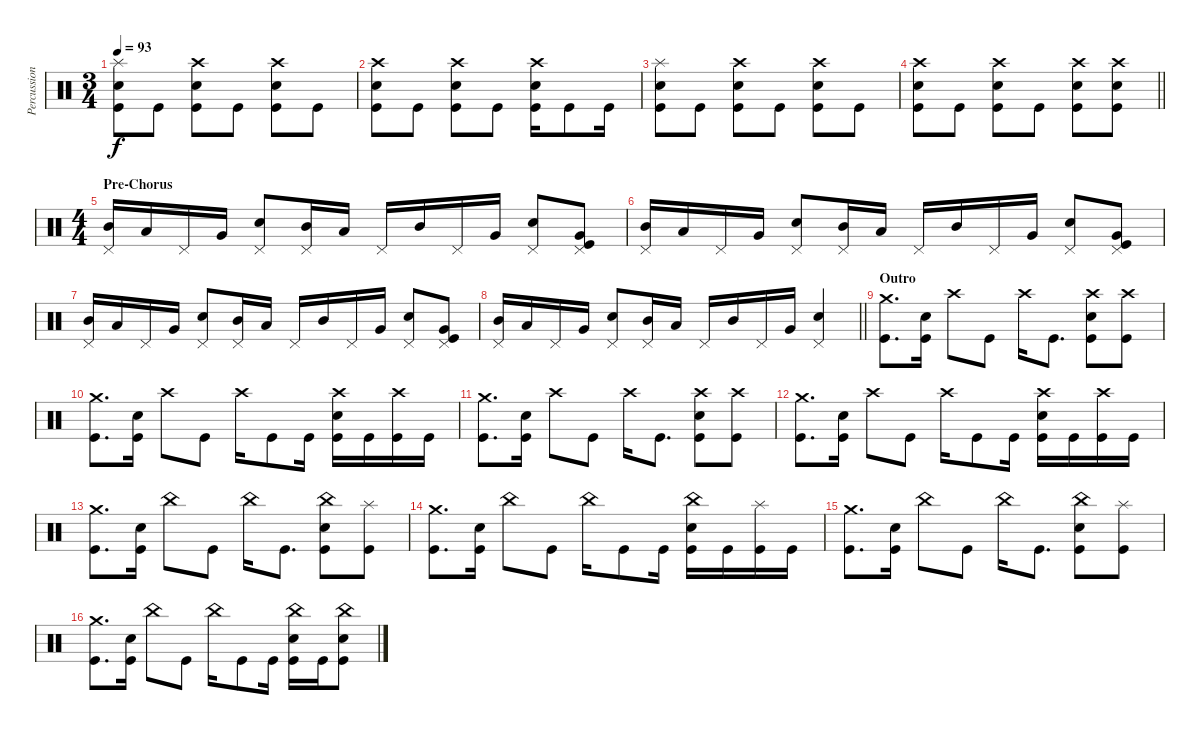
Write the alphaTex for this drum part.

\track ("Percussion" "Percussion") {instrument percussion}
\staff {score}
\articulation defaults
\ts (3 4)
\tempo 93
\clef neutral
\ks c
("Splash (hit)" "Electric Snare (hit)" "Kick (hit)").8{dy f} "Kick (hit)".8 ("Crash high (hit)" "Electric Snare (hit)" "Kick (hit)").8 "Kick (hit)".8 ("Crash high (hit)" "Electric Snare (hit)" "Kick (hit)").8 "Kick (hit)".8 |
("Crash high (hit)" "Electric Snare (hit)" "Kick (hit)").8 "Kick (hit)".8 ("Crash high (hit)" "Electric Snare (hit)" "Kick (hit)").8 "Kick (hit)".8 ("Crash high (hit)" "Electric Snare (hit)" "Kick (hit)").16 "Kick (hit)".8 "Kick (hit)".16 |
("Splash (hit)" "Electric Snare (hit)" "Kick (hit)").8 "Kick (hit)".8 ("Crash high (hit)" "Electric Snare (hit)" "Kick (hit)").8 "Kick (hit)".8 ("Crash high (hit)" "Electric Snare (hit)" "Kick (hit)").8 "Kick (hit)".8 |
\barLineRight lightlight
("Crash high (hit)" "Electric Snare (hit)" "Kick (hit)").8 "Kick (hit)".8 ("Crash high (hit)" "Electric Snare (hit)" "Kick (hit)").8 "Kick (hit)".8 ("Crash high (hit)" "Electric Snare (hit)" "Kick (hit)").8 ("Crash high (hit)" "Electric Snare (hit)" "Kick (hit)").8 |
\ts (4 4)
\section ("" "Pre-Chorus")
("Pedal Hi-Hat (hit)" "Mid Tom (hit)").16 "Low Tom (hit)".16 "Pedal Hi-Hat (hit)".16 "Very Low Tom (hit)".16 ("Pedal Hi-Hat (hit)" "Electric Snare (hit)").8 ("Pedal Hi-Hat (hit)" "Mid Tom (hit)").16 "Low Tom (hit)".16 "Pedal Hi-Hat (hit)".16 "Mid Tom (hit)".16 "Pedal Hi-Hat (hit)".16 "Very Low Tom (hit)".16 ("Pedal Hi-Hat (hit)" "Electric Snare (hit)").8 ("Pedal Hi-Hat (hit)" "Very Low Tom (hit)" "Kick (hit)").8 |
("Pedal Hi-Hat (hit)" "Mid Tom (hit)").16 "Low Tom (hit)".16 "Pedal Hi-Hat (hit)".16 "Very Low Tom (hit)".16 ("Pedal Hi-Hat (hit)" "Electric Snare (hit)").8 ("Pedal Hi-Hat (hit)" "Mid Tom (hit)").16 "Low Tom (hit)".16 "Pedal Hi-Hat (hit)".16 "Mid Tom (hit)".16 "Pedal Hi-Hat (hit)".16 "Very Low Tom (hit)".16 ("Pedal Hi-Hat (hit)" "Electric Snare (hit)").8 ("Pedal Hi-Hat (hit)" "Very Low Tom (hit)" "Kick (hit)").8 |
("Pedal Hi-Hat (hit)" "Mid Tom (hit)").16 "Low Tom (hit)".16 "Pedal Hi-Hat (hit)".16 "Very Low Tom (hit)".16 ("Pedal Hi-Hat (hit)" "Electric Snare (hit)").8 ("Pedal Hi-Hat (hit)" "Mid Tom (hit)").16 "Low Tom (hit)".16 "Pedal Hi-Hat (hit)".16 "Mid Tom (hit)".16 "Pedal Hi-Hat (hit)".16 "Very Low Tom (hit)".16 ("Pedal Hi-Hat (hit)" "Electric Snare (hit)").8 ("Pedal Hi-Hat (hit)" "Very Low Tom (hit)" "Kick (hit)").8 |
\barLineRight lightlight
("Pedal Hi-Hat (hit)" "Mid Tom (hit)").16 "Low Tom (hit)".16 "Pedal Hi-Hat (hit)".16 "Very Low Tom (hit)".16 ("Pedal Hi-Hat (hit)" "Electric Snare (hit)").8 ("Pedal Hi-Hat (hit)" "Mid Tom (hit)").16 "Low Tom (hit)".16 "Pedal Hi-Hat (hit)".16 "Mid Tom (hit)".16 "Pedal Hi-Hat (hit)".16 "Very Low Tom (hit)".16 ("Pedal Hi-Hat (hit)" "Electric Snare (hit)").4 |
\section ("" "Outro")
("Crash medium (hit)" "Kick (hit)").8{d} ("Electric Snare (hit)" "Kick (hit)").16 "Crash high (hit)".8 "Kick (hit)".8 "Crash high (hit)".16 "Kick (hit)".8{d} ("Crash high (hit)" "Electric Snare (hit)" "Kick (hit)").8 ("Crash high (hit)" "Kick (hit)").8 |
("Crash medium (hit)" "Kick (hit)").8{d} ("Electric Snare (hit)" "Kick (hit)").16 "Crash high (hit)".8 "Kick (hit)".8 "Crash high (hit)".16 "Kick (hit)".8 "Kick (hit)".16 ("Crash high (hit)" "Electric Snare (hit)" "Kick (hit)").16 "Kick (hit)".16 ("Crash high (hit)" "Kick (hit)").16 "Kick (hit)".16 |
("Crash medium (hit)" "Kick (hit)").8{d} ("Electric Snare (hit)" "Kick (hit)").16 "Crash high (hit)".8 "Kick (hit)".8 "Crash high (hit)".16 "Kick (hit)".8{d} ("Crash high (hit)" "Electric Snare (hit)" "Kick (hit)").8 ("Crash high (hit)" "Kick (hit)").8 |
("Crash medium (hit)" "Kick (hit)").8{d} ("Electric Snare (hit)" "Kick (hit)").16 "Crash high (hit)".8 "Kick (hit)".8 "Crash high (hit)".16 "Kick (hit)".8 "Kick (hit)".16 ("Crash high (hit)" "Electric Snare (hit)" "Kick (hit)").16 "Kick (hit)".16 ("Crash high (hit)" "Kick (hit)").16 "Kick (hit)".16 |
("Crash medium (hit)" "Kick (hit)").8{d} ("Electric Snare (hit)" "Kick (hit)").16 "China (hit)".8 "Kick (hit)".8 "China (hit)".16 "Kick (hit)".8{d} ("China (hit)" "Electric Snare (hit)" "Kick (hit)").8 ("Splash (hit)" "Kick (hit)").8 |
("Crash medium (hit)" "Kick (hit)").8{d} ("Electric Snare (hit)" "Kick (hit)").16 "China (hit)".8 "Kick (hit)".8 "China (hit)".16 "Kick (hit)".8 "Kick (hit)".16 ("China (hit)" "Electric Snare (hit)" "Kick (hit)").16 "Kick (hit)".16 ("Splash (hit)" "Kick (hit)").16 "Kick (hit)".16 |
("Crash medium (hit)" "Kick (hit)").8{d} ("Electric Snare (hit)" "Kick (hit)").16 "China (hit)".8 "Kick (hit)".8 "China (hit)".16 "Kick (hit)".8{d} ("China (hit)" "Electric Snare (hit)" "Kick (hit)").8 ("Splash (hit)" "Kick (hit)").8 |
("Crash medium (hit)" "Kick (hit)").8{d} ("Electric Snare (hit)" "Kick (hit)").16 "China (hit)".8 "Kick (hit)".8 "China (hit)".16 "Kick (hit)".8 "Kick (hit)".16 ("China (hit)" "Electric Snare (hit)" "Kick (hit)").16 "Kick (hit)".16 ("China (hit)" "Electric Snare (hit)" "Kick (hit)").8
